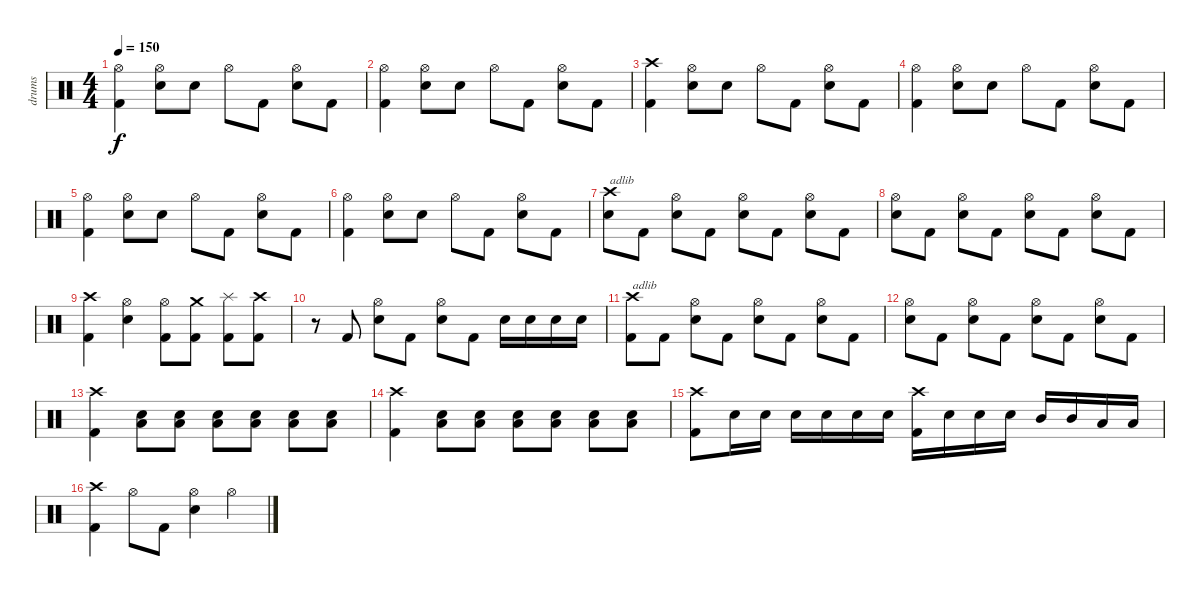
\track ("drums" "drums") {instrument percussion}
\staff {score}
\articulation defaults
\ts (4 4)
\tempo 150
\clef neutral
\ks c
("Hi-Hat (open)" "Kick (hit) 2").4{dy f} ("Hi-Hat (open)" "Electric Snare (hit)").8 "Electric Snare (hit)".8 "Hi-Hat (open)".8 "Kick (hit) 2".8 ("Hi-Hat (open)" "Electric Snare (hit)").8 "Kick (hit) 2".8 |
("Hi-Hat (open)" "Kick (hit) 2").4 ("Hi-Hat (open)" "Electric Snare (hit)").8 "Electric Snare (hit)".8 "Hi-Hat (open)".8 "Kick (hit) 2".8 ("Hi-Hat (open)" "Electric Snare (hit)").8 "Kick (hit) 2".8 |
("Crash high (hit)" "Kick (hit) 2").4 ("Hi-Hat (open)" "Electric Snare (hit)").8 "Electric Snare (hit)".8 "Hi-Hat (open)".8 "Kick (hit) 2".8 ("Hi-Hat (open)" "Electric Snare (hit)").8 "Kick (hit) 2".8 |
("Hi-Hat (open)" "Kick (hit) 2").4 ("Hi-Hat (open)" "Electric Snare (hit)").8 "Electric Snare (hit)".8 "Hi-Hat (open)".8 "Kick (hit) 2".8 ("Hi-Hat (open)" "Electric Snare (hit)").8 "Kick (hit) 2".8 |
("Hi-Hat (open)" "Kick (hit) 2").4 ("Hi-Hat (open)" "Electric Snare (hit)").8 "Electric Snare (hit)".8 "Hi-Hat (open)".8 "Kick (hit) 2".8 ("Hi-Hat (open)" "Electric Snare (hit)").8 "Kick (hit) 2".8 |
("Hi-Hat (open)" "Kick (hit) 2").4 ("Hi-Hat (open)" "Electric Snare (hit)").8 "Electric Snare (hit)".8 "Hi-Hat (open)".8 "Kick (hit) 2".8 ("Hi-Hat (open)" "Electric Snare (hit)").8 "Kick (hit) 2".8 |
("Crash high (hit)" "Electric Snare (hit)").8{txt "adlib"} "Kick (hit) 2".8 ("Hi-Hat (open)" "Electric Snare (hit)").8 "Kick (hit) 2".8 ("Hi-Hat (open)" "Electric Snare (hit)").8 "Kick (hit) 2".8 ("Hi-Hat (open)" "Electric Snare (hit)").8 "Kick (hit) 2".8 |
("Hi-Hat (open)" "Electric Snare (hit)").8 "Kick (hit) 2".8 ("Hi-Hat (open)" "Electric Snare (hit)").8 "Kick (hit) 2".8 ("Hi-Hat (open)" "Electric Snare (hit)").8 "Kick (hit) 2".8 ("Hi-Hat (open)" "Electric Snare (hit)").8 "Kick (hit) 2".8 |
("Crash high (hit)" "Kick (hit) 2").4 ("Hi-Hat (open)" "Electric Snare (hit)").4 ("Hi-Hat (open)" "Kick (hit) 2").8 ("Crash medium (hit)" "Kick (hit) 2").8 ("Splash (hit)" "Kick (hit) 2").8 ("Crash high (hit)" "Kick (hit) 2").8 |
r.8 "Kick (hit) 2".8 ("Hi-Hat (open)" "Electric Snare (hit)").8 "Kick (hit) 2".8 ("Hi-Hat (open)" "Electric Snare (hit)").8 "Kick (hit) 2".8 "Electric Snare (hit)".16 "Electric Snare (hit)".16 "Electric Snare (hit)".16 "Electric Snare (hit)".16 |
("Crash high (hit)" "Kick (hit) 2").8{txt "adlib"} "Kick (hit) 2".8 ("Hi-Hat (open)" "Electric Snare (hit)").8 "Kick (hit) 2".8 ("Hi-Hat (open)" "Electric Snare (hit)").8 "Kick (hit) 2".8 ("Hi-Hat (open)" "Electric Snare (hit)").8 "Kick (hit) 2".8 |
("Hi-Hat (open)" "Electric Snare (hit)").8 "Kick (hit) 2".8 ("Hi-Hat (open)" "Electric Snare (hit)").8 "Kick (hit) 2".8 ("Hi-Hat (open)" "Electric Snare (hit)").8 "Kick (hit) 2".8 ("Hi-Hat (open)" "Electric Snare (hit)").8 "Kick (hit) 2".8 |
("Crash high (hit)" "Kick (hit) 2").4 ("Electric Snare (hit)" "Low Floor Tom (hit)").8 ("Electric Snare (hit)" "Low Floor Tom (hit)").8 ("Electric Snare (hit)" "Low Floor Tom (hit)").8 ("Electric Snare (hit)" "Low Floor Tom (hit)").8 ("Electric Snare (hit)" "Low Floor Tom (hit)").8 ("Electric Snare (hit)" "Low Floor Tom (hit)").8 |
("Crash high (hit)" "Kick (hit) 2").4 ("Electric Snare (hit)" "Low Floor Tom (hit)").8 ("Electric Snare (hit)" "Low Floor Tom (hit)").8 ("Electric Snare (hit)" "Low Floor Tom (hit)").8 ("Electric Snare (hit)" "Low Floor Tom (hit)").8 ("Electric Snare (hit)" "Low Floor Tom (hit)").8 ("Electric Snare (hit)" "Low Floor Tom (hit)").8 |
("Crash high (hit)" "Kick (hit) 2").8 "Electric Snare (hit)".16 "Electric Snare (hit)".16 "Electric Snare (hit)".16 "Electric Snare (hit)".16 "Electric Snare (hit)".16 "Electric Snare (hit)".16 ("Crash high (hit)" "Kick (hit) 2").16 "Electric Snare (hit)".16 "Electric Snare (hit)".16 "Electric Snare (hit)".16 "Mid Tom (hit)".16 "Mid Tom (hit)".16 "Low Tom (hit)".16 "Low Tom (hit)".16 |
("Crash high (hit)" "Kick (hit) 2").4 "Hi-Hat (open)".8 "Kick (hit) 2".8 ("Hi-Hat (open)" "Electric Snare (hit)").4 "Hi-Hat (open)".4
